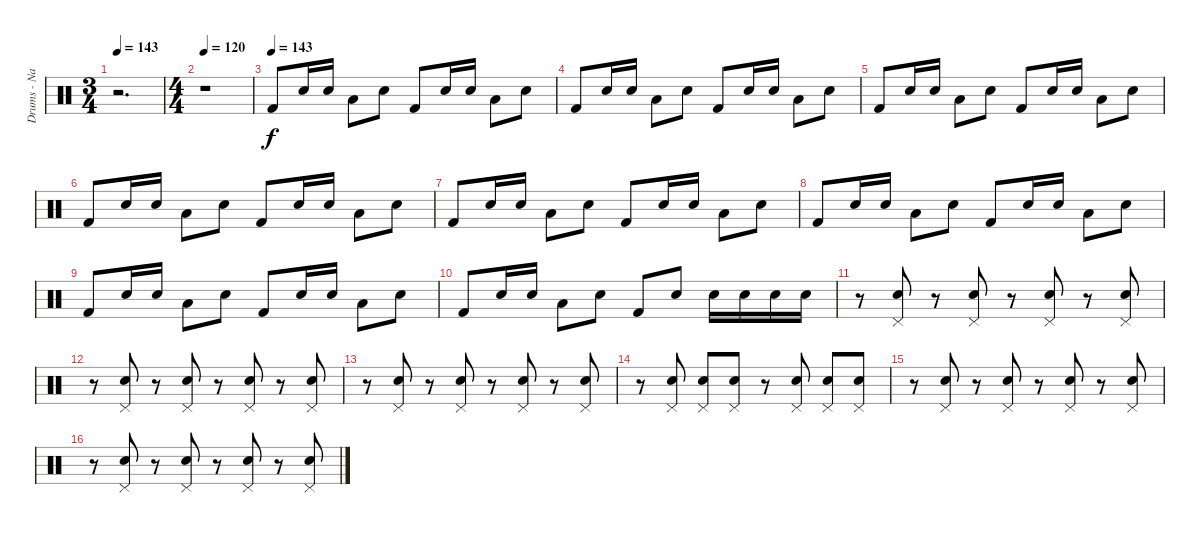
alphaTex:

\track ("Drums - Naffah" "Drums - Na") {instrument percussion}
\staff {score}
\articulation defaults
\ts (3 4)
\tempo 143
\tempo 120
\tempo 143
\clef neutral
\ks c
r.2{d dy f} |
\ts (4 4)
\tempo 120
r.1 |
\tempo (143)
"Kick (hit) 2".8 "Snare (hit) 2".16 "Snare (hit) 2".16 "Low Floor Tom (hit)".8 "Snare (hit) 2".8 "Kick (hit) 2".8 "Snare (hit) 2".16 "Snare (hit) 2".16 "Low Floor Tom (hit)".8 "Snare (hit) 2".8 |
"Kick (hit) 2".8 "Snare (hit) 2".16 "Snare (hit) 2".16 "Low Floor Tom (hit)".8 "Snare (hit) 2".8 "Kick (hit) 2".8 "Snare (hit) 2".16 "Snare (hit) 2".16 "Low Floor Tom (hit)".8 "Snare (hit) 2".8 |
"Kick (hit) 2".8 "Snare (hit) 2".16 "Snare (hit) 2".16 "Low Floor Tom (hit)".8 "Snare (hit) 2".8 "Kick (hit) 2".8 "Snare (hit) 2".16 "Snare (hit) 2".16 "Low Floor Tom (hit)".8 "Snare (hit) 2".8 |
"Kick (hit) 2".8 "Snare (hit) 2".16 "Snare (hit) 2".16 "Low Floor Tom (hit)".8 "Snare (hit) 2".8 "Kick (hit) 2".8 "Snare (hit) 2".16 "Snare (hit) 2".16 "Low Floor Tom (hit)".8 "Snare (hit) 2".8 |
"Kick (hit) 2".8 "Snare (hit) 2".16 "Snare (hit) 2".16 "Low Floor Tom (hit)".8 "Snare (hit) 2".8 "Kick (hit) 2".8 "Snare (hit) 2".16 "Snare (hit) 2".16 "Low Floor Tom (hit)".8 "Snare (hit) 2".8 |
"Kick (hit) 2".8 "Snare (hit) 2".16 "Snare (hit) 2".16 "Low Floor Tom (hit)".8 "Snare (hit) 2".8 "Kick (hit) 2".8 "Snare (hit) 2".16 "Snare (hit) 2".16 "Low Floor Tom (hit)".8 "Snare (hit) 2".8 |
"Kick (hit) 2".8 "Snare (hit) 2".16 "Snare (hit) 2".16 "Low Floor Tom (hit)".8 "Snare (hit) 2".8 "Kick (hit) 2".8 "Snare (hit) 2".16 "Snare (hit) 2".16 "Low Floor Tom (hit)".8 "Snare (hit) 2".8 |
"Kick (hit) 2".8 "Snare (hit) 2".16 "Snare (hit) 2".16 "Low Floor Tom (hit)".8 "Snare (hit) 2".8 "Kick (hit) 2".8 "Snare (hit) 2".8 "Snare (hit) 2".16 "Snare (hit) 2".16 "Snare (hit) 2".16 "Snare (hit) 2".16 |
r.8 ("Pedal Hi-Hat (hit)" "Snare (hit) 2").8 r.8 ("Pedal Hi-Hat (hit)" "Snare (hit) 2").8 r.8 ("Pedal Hi-Hat (hit)" "Snare (hit) 2").8 r.8 ("Pedal Hi-Hat (hit)" "Snare (hit) 2").8 |
r.8 ("Pedal Hi-Hat (hit)" "Snare (hit) 2").8 r.8 ("Pedal Hi-Hat (hit)" "Snare (hit) 2").8 r.8 ("Pedal Hi-Hat (hit)" "Snare (hit) 2").8 r.8 ("Pedal Hi-Hat (hit)" "Snare (hit) 2").8 |
r.8 ("Pedal Hi-Hat (hit)" "Snare (hit) 2").8 r.8 ("Pedal Hi-Hat (hit)" "Snare (hit) 2").8 r.8 ("Pedal Hi-Hat (hit)" "Snare (hit) 2").8 r.8 ("Pedal Hi-Hat (hit)" "Snare (hit) 2").8 |
r.8 ("Pedal Hi-Hat (hit)" "Snare (hit) 2").8 ("Pedal Hi-Hat (hit)" "Snare (hit) 2").8 ("Pedal Hi-Hat (hit)" "Snare (hit) 2").8 r.8 ("Pedal Hi-Hat (hit)" "Snare (hit) 2").8 ("Pedal Hi-Hat (hit)" "Snare (hit) 2").8 ("Pedal Hi-Hat (hit)" "Snare (hit) 2").8 |
r.8 ("Pedal Hi-Hat (hit)" "Snare (hit) 2").8 r.8 ("Pedal Hi-Hat (hit)" "Snare (hit) 2").8 r.8 ("Pedal Hi-Hat (hit)" "Snare (hit) 2").8 r.8 ("Pedal Hi-Hat (hit)" "Snare (hit) 2").8 |
r.8 ("Pedal Hi-Hat (hit)" "Snare (hit) 2").8 r.8 ("Pedal Hi-Hat (hit)" "Snare (hit) 2").8 r.8 ("Pedal Hi-Hat (hit)" "Snare (hit) 2").8 r.8 ("Pedal Hi-Hat (hit)" "Snare (hit) 2").8
